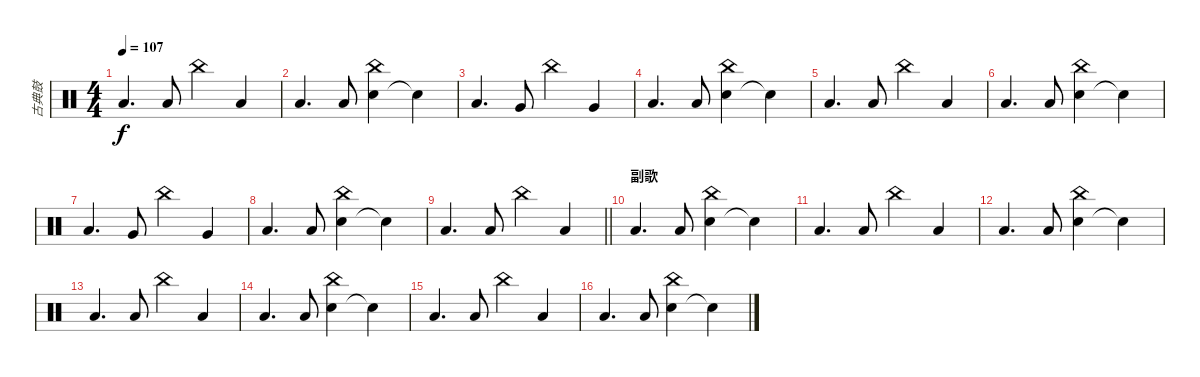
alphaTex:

\track ("古典鼓" "古典鼓") {instrument percussion}
\staff {score}
\articulation defaults
\ts (4 4)
\tempo 107
\clef neutral
\ks c "Low Floor Tom (hit)".4{d dy f} "Low Floor Tom (hit)".8 "China (hit)".4 "Low Floor Tom (hit)".4
|
"Low Floor Tom (hit)".4{d} "Low Floor Tom (hit)".8 ("Hand Clap (hit)" "China (hit)").4 "Snare (hit)"{t}.4 |
"Low Floor Tom (hit)".4{d} "Very Low Tom (hit)".8 "China (hit)".4 "Very Low Tom (hit)".4 |
"Low Floor Tom (hit)".4{d} "Low Floor Tom (hit)".8 ("Hand Clap (hit)" "China (hit)").4 "Snare (hit)"{t}.4 |
"Low Floor Tom (hit)".4{d} "Low Floor Tom (hit)".8 "China (hit)".4 "Low Floor Tom (hit)".4 |
"Low Floor Tom (hit)".4{d} "Low Floor Tom (hit)".8 ("Hand Clap (hit)" "China (hit)").4 "Snare (hit)"{t}.4 |
"Low Floor Tom (hit)".4{d} "Very Low Tom (hit)".8 "China (hit)".4 "Very Low Tom (hit)".4 |
"Low Floor Tom (hit)".4{d} "Low Floor Tom (hit)".8 ("Hand Clap (hit)" "China (hit)").4 "Snare (hit)"{t}.4 |
\barLineRight lightlight "Low Floor Tom (hit)".4{d} "Low Floor Tom (hit)".8 "China (hit)".4 "Low Floor Tom (hit)".4
|
\section ("" "副歌")
"Low Floor Tom (hit)".4{d} "Low Floor Tom (hit)".8 ("Hand Clap (hit)" "China (hit)").4 "Snare (hit)"{t}.4 |
"Low Floor Tom (hit)".4{d} "Low Floor Tom (hit)".8 "China (hit)".4 "Low Floor Tom (hit)".4 |
"Low Floor Tom (hit)".4{d} "Low Floor Tom (hit)".8 ("Hand Clap (hit)" "China (hit)").4 "Snare (hit)"{t}.4 |
"Low Floor Tom (hit)".4{d} "Low Floor Tom (hit)".8 "China (hit)".4 "Low Floor Tom (hit)".4 |
"Low Floor Tom (hit)".4{d} "Low Floor Tom (hit)".8 ("Hand Clap (hit)" "China (hit)").4 "Snare (hit)"{t}.4 |
"Low Floor Tom (hit)".4{d} "Low Floor Tom (hit)".8 "China (hit)".4 "Low Floor Tom (hit)".4 |
"Low Floor Tom (hit)".4{d} "Low Floor Tom (hit)".8 ("Hand Clap (hit)" "China (hit)").4 "Snare (hit)"{t}.4
